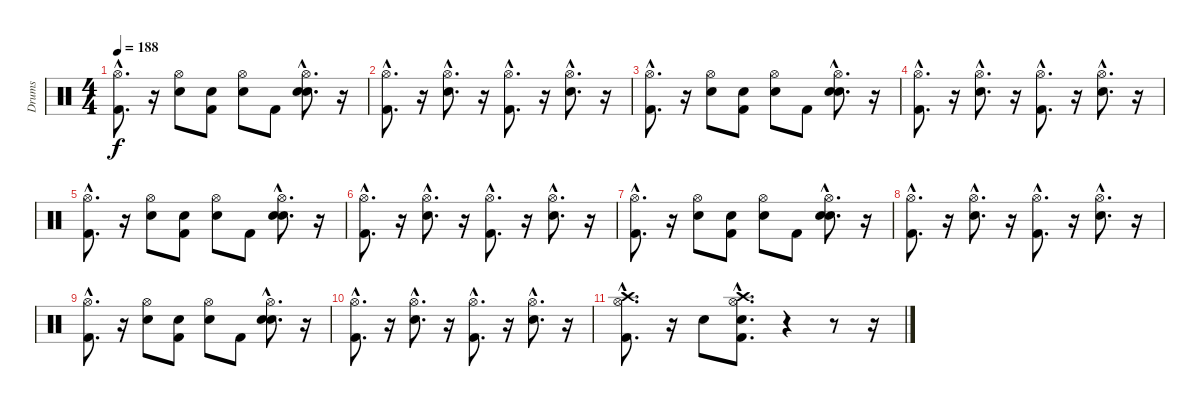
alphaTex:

\track ("Drums" "Drums") {instrument percussion}
\staff {score}
\articulation defaults
\ts (4 4)
\tempo 188
\clef neutral
\ks c
("Kick (hit) 2"{hac} "Hi-Hat (open)"{hac}).8{d dy f} r.16 ("Snare (hit) 2" "Hi-Hat (open)").8 ("Snare (hit)" "Kick (hit) 2").8 ("Snare (hit)" "Hi-Hat (open)").8 "Kick (hit) 2".8 ("Snare (hit)"{hac} "Snare (hit) 2"{hac} "Hi-Hat (open)"{hac}).8{d} r.16 |
("Kick (hit) 2"{hac} "Hi-Hat (open)"{hac}).8{d} r.16 ("Snare (hit) 2"{hac} "Hi-Hat (open)"{hac}).8{d} r.16 ("Kick (hit) 2"{hac} "Hi-Hat (open)"{hac}).8{d} r.16 ("Snare (hit) 2"{hac} "Hi-Hat (open)"{hac}).8{d} r.16 |
("Kick (hit) 2"{hac} "Hi-Hat (open)"{hac}).8{d} r.16 ("Snare (hit) 2" "Hi-Hat (open)").8 ("Snare (hit)" "Kick (hit) 2").8 ("Snare (hit)" "Hi-Hat (open)").8 "Kick (hit) 2".8 ("Snare (hit)"{hac} "Snare (hit) 2"{hac} "Hi-Hat (open)"{hac}).8{d} r.16 |
("Kick (hit) 2"{hac} "Hi-Hat (open)"{hac}).8{d} r.16 ("Snare (hit) 2"{hac} "Hi-Hat (open)"{hac}).8{d} r.16 ("Kick (hit) 2"{hac} "Hi-Hat (open)"{hac}).8{d} r.16 ("Snare (hit) 2"{hac} "Hi-Hat (open)"{hac}).8{d} r.16 |
("Kick (hit) 2"{hac} "Hi-Hat (open)"{hac}).8{d} r.16 ("Snare (hit) 2" "Hi-Hat (open)").8 ("Snare (hit)" "Kick (hit) 2").8 ("Snare (hit)" "Hi-Hat (open)").8 "Kick (hit) 2".8 ("Snare (hit)"{hac} "Snare (hit) 2"{hac} "Hi-Hat (open)"{hac}).8{d} r.16 |
("Kick (hit) 2"{hac} "Hi-Hat (open)"{hac}).8{d} r.16 ("Snare (hit) 2"{hac} "Hi-Hat (open)"{hac}).8{d} r.16 ("Kick (hit) 2"{hac} "Hi-Hat (open)"{hac}).8{d} r.16 ("Snare (hit) 2"{hac} "Hi-Hat (open)"{hac}).8{d} r.16 |
("Kick (hit) 2"{hac} "Hi-Hat (open)"{hac}).8{d} r.16 ("Snare (hit) 2" "Hi-Hat (open)").8 ("Snare (hit)" "Kick (hit) 2").8 ("Snare (hit)" "Hi-Hat (open)").8 "Kick (hit) 2".8 ("Snare (hit)"{hac} "Snare (hit) 2"{hac} "Hi-Hat (open)"{hac}).8{d} r.16 |
("Kick (hit) 2"{hac} "Hi-Hat (open)"{hac}).8{d} r.16 ("Snare (hit) 2"{hac} "Hi-Hat (open)"{hac}).8{d} r.16 ("Kick (hit) 2"{hac} "Hi-Hat (open)"{hac}).8{d} r.16 ("Snare (hit) 2"{hac} "Hi-Hat (open)"{hac}).8{d} r.16 |
("Kick (hit) 2"{hac} "Hi-Hat (open)"{hac}).8{d} r.16 ("Snare (hit) 2" "Hi-Hat (open)").8 ("Snare (hit)" "Kick (hit) 2").8 ("Snare (hit)" "Hi-Hat (open)").8 "Kick (hit) 2".8 ("Snare (hit)"{hac} "Snare (hit) 2"{hac} "Hi-Hat (open)"{hac}).8{d} r.16 |
("Kick (hit) 2"{hac} "Hi-Hat (open)"{hac}).8{d} r.16 ("Snare (hit) 2"{hac} "Hi-Hat (open)"{hac}).8{d} r.16 ("Kick (hit) 2"{hac} "Hi-Hat (open)"{hac}).8{d} r.16 ("Snare (hit) 2"{hac} "Hi-Hat (open)"{hac}).8{d} r.16 |
("Kick (hit) 2"{hac} "Hi-Hat (open)"{hac} "Crash high (hit)"{hac}).8{d} r.16 "Snare (hit) 2".8 ("Snare (hit)"{hac} "Kick (hit) 2"{hac} "Hi-Hat (open)"{hac} "Crash high (hit)"{hac}).8{d} r.4 r.8 r.16
